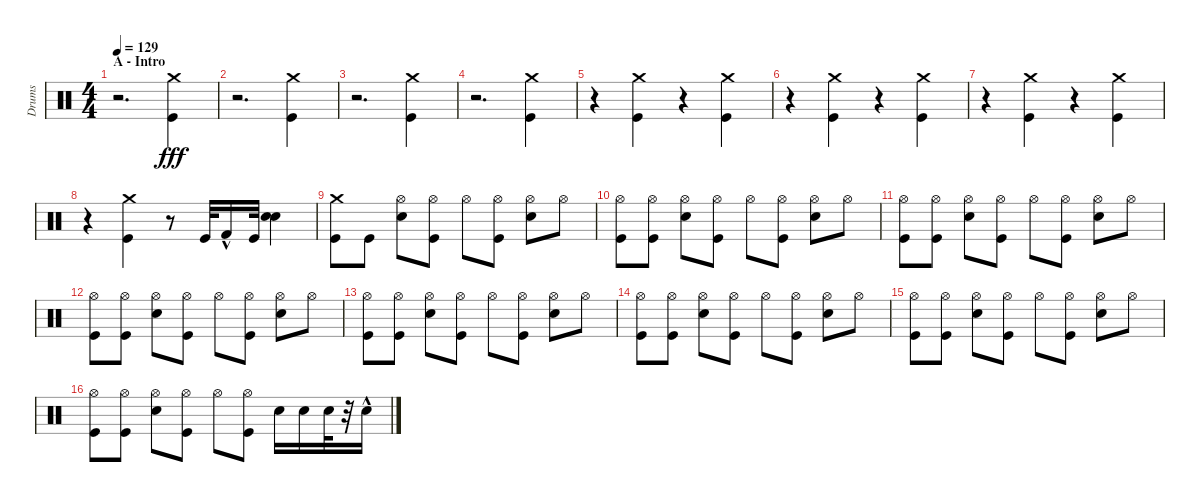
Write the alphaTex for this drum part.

\track ("Drums" "Drums") {instrument percussion}
\staff {score}
\articulation defaults
\ts (4 4)
\section ("" "A - Intro")
\tempo 129
\clef neutral
\ks c
r.2{d dy fff} ("Crash medium (hit)" "Kick (hit)").4 |
r.2{d} ("Crash medium (hit)" "Kick (hit)").4 |
r.2{d} ("Crash medium (hit)" "Kick (hit)").4 |
r.2{d} ("Crash medium (hit)" "Kick (hit)").4 |
r.4 ("Crash medium (hit)" "Kick (hit)").4 r.4 ("Crash medium (hit)" "Kick (hit)").4 |
r.4 ("Crash medium (hit)" "Kick (hit)").4 r.4 ("Crash medium (hit)" "Kick (hit)").4 |
r.4 ("Crash medium (hit)" "Kick (hit)").4 r.4 ("Crash medium (hit)" "Kick (hit)").4 |
r.4 ("Crash medium (hit)" "Kick (hit)").4 r.8 "Kick (hit)".32 "Kick (hit) 2"{hac}.16 "Kick (hit)".32 ("Snare (hit) 2" "Snare (hit) 2").4 |
("Crash medium (hit)" "Kick (hit)").8 "Kick (hit)".8 ("Snare (hit) 2" "Hi-Hat (open)").8 ("Kick (hit)" "Hi-Hat (open)").8 "Hi-Hat (open)".8 ("Kick (hit)" "Hi-Hat (open)").8 ("Snare (hit) 2" "Hi-Hat (open)").8 "Hi-Hat (open)".8 |
("Hi-Hat (open)" "Kick (hit)").8 ("Hi-Hat (open)" "Kick (hit)").8 ("Snare (hit) 2" "Hi-Hat (open)").8 ("Kick (hit)" "Hi-Hat (open)").8 "Hi-Hat (open)".8 ("Kick (hit)" "Hi-Hat (open)").8 ("Snare (hit) 2" "Hi-Hat (open)").8 "Hi-Hat (open)".8 |
("Hi-Hat (open)" "Kick (hit)").8 ("Hi-Hat (open)" "Kick (hit)").8 ("Snare (hit) 2" "Hi-Hat (open)").8 ("Kick (hit)" "Hi-Hat (open)").8 "Hi-Hat (open)".8 ("Kick (hit)" "Hi-Hat (open)").8 ("Snare (hit) 2" "Hi-Hat (open)").8 "Hi-Hat (open)".8 |
("Hi-Hat (open)" "Kick (hit)").8 ("Hi-Hat (open)" "Kick (hit)").8 ("Snare (hit) 2" "Hi-Hat (open)").8 ("Kick (hit)" "Hi-Hat (open)").8 "Hi-Hat (open)".8 ("Kick (hit)" "Hi-Hat (open)").8 ("Snare (hit) 2" "Hi-Hat (open)").8 "Hi-Hat (open)".8 |
("Hi-Hat (open)" "Kick (hit)").8 ("Hi-Hat (open)" "Kick (hit)").8 ("Snare (hit) 2" "Hi-Hat (open)").8 ("Kick (hit)" "Hi-Hat (open)").8 "Hi-Hat (open)".8 ("Kick (hit)" "Hi-Hat (open)").8 ("Snare (hit) 2" "Hi-Hat (open)").8 "Hi-Hat (open)".8 |
("Hi-Hat (open)" "Kick (hit)").8 ("Hi-Hat (open)" "Kick (hit)").8 ("Snare (hit) 2" "Hi-Hat (open)").8 ("Kick (hit)" "Hi-Hat (open)").8 "Hi-Hat (open)".8 ("Kick (hit)" "Hi-Hat (open)").8 ("Snare (hit) 2" "Hi-Hat (open)").8 "Hi-Hat (open)".8 |
("Hi-Hat (open)" "Kick (hit)").8 ("Hi-Hat (open)" "Kick (hit)").8 ("Snare (hit) 2" "Hi-Hat (open)").8 ("Kick (hit)" "Hi-Hat (open)").8 "Hi-Hat (open)".8 ("Kick (hit)" "Hi-Hat (open)").8 ("Snare (hit) 2" "Hi-Hat (open)").8 "Hi-Hat (open)".8 |
("Hi-Hat (open)" "Kick (hit)").8 ("Hi-Hat (open)" "Kick (hit)").8 ("Snare (hit) 2" "Hi-Hat (open)").8 ("Kick (hit)" "Hi-Hat (open)").8 "Hi-Hat (open)".8 ("Hi-Hat (open)" "Kick (hit)").8 "Snare (hit) 2".16 "Snare (hit) 2".16 "Snare (hit) 2".32 r.32 "Snare (hit) 2"{hac}.16
